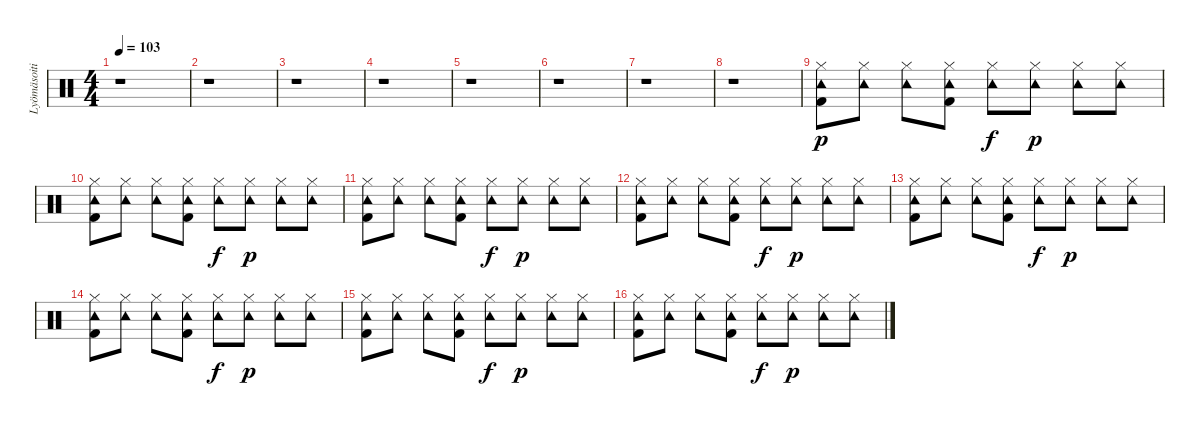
\track ("Lyömäsoitin" "Lyömäsoiti") {instrument percussion}
\staff {score}
\articulation defaults
\ts (4 4)
\tempo 103
\clef neutral
\ks c
r.1{dy p} |
r.1 |
r.1 |
r.1 |
r.1 |
r.1 |
r.1 |
r.1 |
("Kick (hit) 2" "Hi-Hat (closed)" "Tambourine (hit)").8 ("Hi-Hat (closed)" "Tambourine (hit)").8 ("Hi-Hat (closed)" "Tambourine (hit)").8 ("Kick (hit) 2" "Hi-Hat (closed)" "Tambourine (hit)").8 ("Hi-Hat (closed)" "Tambourine (hit)").8{dy f} ("Hi-Hat (closed)" "Tambourine (hit)").8{dy p} ("Hi-Hat (closed)" "Tambourine (hit)").8 ("Hi-Hat (closed)" "Tambourine (hit)").8 |
("Kick (hit) 2" "Hi-Hat (closed)" "Tambourine (hit)").8 ("Hi-Hat (closed)" "Tambourine (hit)").8 ("Hi-Hat (closed)" "Tambourine (hit)").8 ("Kick (hit) 2" "Hi-Hat (closed)" "Tambourine (hit)").8 ("Hi-Hat (closed)" "Tambourine (hit)").8{dy f} ("Hi-Hat (closed)" "Tambourine (hit)").8{dy p} ("Hi-Hat (closed)" "Tambourine (hit)").8 ("Hi-Hat (closed)" "Tambourine (hit)").8 |
("Kick (hit) 2" "Hi-Hat (closed)" "Tambourine (hit)").8 ("Hi-Hat (closed)" "Tambourine (hit)").8 ("Hi-Hat (closed)" "Tambourine (hit)").8 ("Kick (hit) 2" "Hi-Hat (closed)" "Tambourine (hit)").8 ("Hi-Hat (closed)" "Tambourine (hit)").8{dy f} ("Hi-Hat (closed)" "Tambourine (hit)").8{dy p} ("Hi-Hat (closed)" "Tambourine (hit)").8 ("Hi-Hat (closed)" "Tambourine (hit)").8 |
("Kick (hit) 2" "Hi-Hat (closed)" "Tambourine (hit)").8 ("Hi-Hat (closed)" "Tambourine (hit)").8 ("Hi-Hat (closed)" "Tambourine (hit)").8 ("Kick (hit) 2" "Hi-Hat (closed)" "Tambourine (hit)").8 ("Hi-Hat (closed)" "Tambourine (hit)").8{dy f} ("Hi-Hat (closed)" "Tambourine (hit)").8{dy p} ("Hi-Hat (closed)" "Tambourine (hit)").8 ("Hi-Hat (closed)" "Tambourine (hit)").8 |
("Kick (hit) 2" "Hi-Hat (closed)" "Tambourine (hit)").8 ("Hi-Hat (closed)" "Tambourine (hit)").8 ("Hi-Hat (closed)" "Tambourine (hit)").8 ("Kick (hit) 2" "Hi-Hat (closed)" "Tambourine (hit)").8 ("Hi-Hat (closed)" "Tambourine (hit)").8{dy f} ("Hi-Hat (closed)" "Tambourine (hit)").8{dy p} ("Hi-Hat (closed)" "Tambourine (hit)").8 ("Hi-Hat (closed)" "Tambourine (hit)").8 |
("Kick (hit) 2" "Hi-Hat (closed)" "Tambourine (hit)").8 ("Hi-Hat (closed)" "Tambourine (hit)").8 ("Hi-Hat (closed)" "Tambourine (hit)").8 ("Kick (hit) 2" "Hi-Hat (closed)" "Tambourine (hit)").8 ("Hi-Hat (closed)" "Tambourine (hit)").8{dy f} ("Hi-Hat (closed)" "Tambourine (hit)").8{dy p} ("Hi-Hat (closed)" "Tambourine (hit)").8 ("Hi-Hat (closed)" "Tambourine (hit)").8 |
("Kick (hit) 2" "Hi-Hat (closed)" "Tambourine (hit)").8 ("Hi-Hat (closed)" "Tambourine (hit)").8 ("Hi-Hat (closed)" "Tambourine (hit)").8 ("Kick (hit) 2" "Hi-Hat (closed)" "Tambourine (hit)").8 ("Hi-Hat (closed)" "Tambourine (hit)").8{dy f} ("Hi-Hat (closed)" "Tambourine (hit)").8{dy p} ("Hi-Hat (closed)" "Tambourine (hit)").8 ("Hi-Hat (closed)" "Tambourine (hit)").8 |
("Kick (hit) 2" "Hi-Hat (closed)" "Tambourine (hit)").8 ("Hi-Hat (closed)" "Tambourine (hit)").8 ("Hi-Hat (closed)" "Tambourine (hit)").8 ("Kick (hit) 2" "Hi-Hat (closed)" "Tambourine (hit)").8 ("Hi-Hat (closed)" "Tambourine (hit)").8{dy f} ("Hi-Hat (closed)" "Tambourine (hit)").8{dy p} ("Hi-Hat (closed)" "Tambourine (hit)").8 ("Hi-Hat (closed)" "Tambourine (hit)").8
